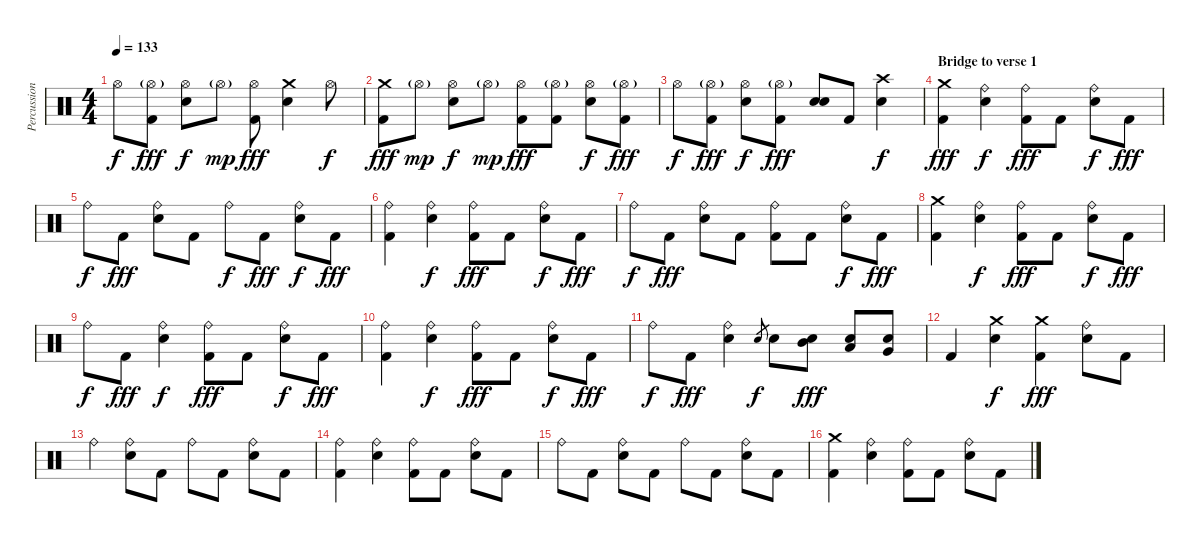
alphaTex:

\track ("Percussion" "Percussion") {instrument percussion}
\staff {score}
\articulation defaults
\ts (4 4)
\tempo 133
\clef neutral
\ks c "Hi-Hat (open)".8{dy f}
("Hi-Hat (open)"{g} "Kick (hit) 2").8{dy fff} ("Hi-Hat (open)" "Electric Snare (hit)").8{dy f} "Hi-Hat (open)"{g}.8{dy mp} ("Hi-Hat (open)" "Kick (hit) 2").8{dy fff} ("Crash medium (hit)" "Electric Snare (hit)").4 "Hi-Hat (open)".8{dy f} |
("Crash medium (hit)" "Kick (hit) 2").8{dy fff} "Hi-Hat (open)"{g}.8{dy mp} ("Hi-Hat (open)" "Electric Snare (hit)").8{dy f} "Hi-Hat (open)"{g}.8{dy mp} ("Hi-Hat (open)" "Kick (hit) 2").8{dy fff} ("Hi-Hat (open)"{g} "Kick (hit) 2").8 ("Hi-Hat (open)" "Electric Snare (hit)").8{dy f} ("Hi-Hat (open)"{g} "Kick (hit) 2").8{dy fff} |
"Hi-Hat (open)".8{dy f} ("Hi-Hat (open)"{g} "Kick (hit) 2").8{dy fff} ("Hi-Hat (open)" "Electric Snare (hit)").8{dy f} ("Hi-Hat (open)"{g} "Kick (hit) 2").8{dy fff} ("Snare (hit) 2" "Electric Snare (hit)").8 "Kick (hit) 2".8 ("Crash high (hit)" "Electric Snare (hit)").4{dy f} |
\section ("" "Bridge to verse 1")
("Crash medium (hit)" "Kick (hit) 2").4{dy fff} ("Ride (bell)" "Electric Snare (hit)").4{dy f} ("Ride (bell)" "Kick (hit) 2").8{dy fff} "Kick (hit) 2".8 ("Ride (bell)" "Electric Snare (hit)").8{dy f} "Kick (hit) 2".8{dy fff} |
"Ride (bell)".8{dy f} "Kick (hit) 2".8{dy fff} ("Ride (bell)" "Electric Snare (hit)").8 "Kick (hit) 2".8 "Ride (bell)".8{dy f} "Kick (hit) 2".8{dy fff} ("Ride (bell)" "Electric Snare (hit)").8{dy f} "Kick (hit) 2".8{dy fff} |
("Ride (bell)" "Kick (hit) 2").4 ("Ride (bell)" "Electric Snare (hit)").4{dy f} ("Ride (bell)" "Kick (hit) 2").8{dy fff} "Kick (hit) 2".8 ("Ride (bell)" "Electric Snare (hit)").8{dy f} "Kick (hit) 2".8{dy fff} |
"Ride (bell)".8{dy f} "Kick (hit) 2".8{dy fff} ("Ride (bell)" "Electric Snare (hit)").8 "Kick (hit) 2".8 ("Ride (bell)" "Kick (hit) 2").8 "Kick (hit) 2".8 ("Ride (bell)" "Electric Snare (hit)").8{dy f} "Kick (hit) 2".8{dy fff} |
("Crash medium (hit)" "Kick (hit) 2").4 ("Ride (bell)" "Electric Snare (hit)").4{dy f} ("Ride (bell)" "Kick (hit) 2").8{dy fff} "Kick (hit) 2".8 ("Ride (bell)" "Electric Snare (hit)").8{dy f} "Kick (hit) 2".8{dy fff} |
"Ride (bell)".8{dy f} "Kick (hit) 2".8{dy fff} ("Ride (bell)" "Electric Snare (hit)").4{dy f} ("Ride (bell)" "Kick (hit) 2").8{dy fff} "Kick (hit) 2".8 ("Ride (bell)" "Electric Snare (hit)").8{dy f} "Kick (hit) 2".8{dy fff} |
("Ride (bell)" "Kick (hit) 2").4 ("Ride (bell)" "Electric Snare (hit)").4{dy f} ("Ride (bell)" "Kick (hit) 2").8{dy fff} "Kick (hit) 2".8 ("Ride (bell)" "Electric Snare (hit)").8{dy f} "Kick (hit) 2".8{dy fff} |
"Ride (bell)".8{dy f} "Kick (hit) 2".8{dy fff} ("Ride (bell)" "Electric Snare (hit)").4 "Electric Snare (hit)".8{gr dy f} "Electric Snare (hit)".8 ("Mid Tom (hit)" "Electric Snare (hit)").8{dy fff} ("Low Tom (hit)" "Electric Snare (hit)").8 ("Very Low Tom (hit)" "Electric Snare (hit)").8 |
"Kick (hit) 2".4 ("Crash medium (hit)" "Electric Snare (hit)").4{dy f} ("Crash medium (hit)" "Kick (hit) 2").4{dy fff} ("Ride (bell)" "Electric Snare (hit)").8 "Kick (hit) 2".8 |
"Ride (bell)".4 ("Ride (bell)" "Electric Snare (hit)").8 "Kick (hit) 2".8 "Ride (bell)".8 "Kick (hit) 2".8 ("Ride (bell)" "Electric Snare (hit)").8 "Kick (hit) 2".8 |
("Ride (bell)" "Kick (hit) 2").4 ("Ride (bell)" "Electric Snare (hit)").4 ("Ride (bell)" "Kick (hit) 2").8 "Kick (hit) 2".8 ("Ride (bell)" "Electric Snare (hit)").8 "Kick (hit) 2".8 |
"Ride (bell)".8 "Kick (hit) 2".8 ("Ride (bell)" "Electric Snare (hit)").8 "Kick (hit) 2".8 "Ride (bell)".8 "Kick (hit) 2".8 ("Ride (bell)" "Electric Snare (hit)").8 "Kick (hit) 2".8 |
("Crash medium (hit)" "Kick (hit) 2").4 ("Ride (bell)" "Electric Snare (hit)").4 ("Ride (bell)" "Kick (hit) 2").8 "Kick (hit) 2".8 ("Ride (bell)" "Electric Snare (hit)").8 "Kick (hit) 2".8
